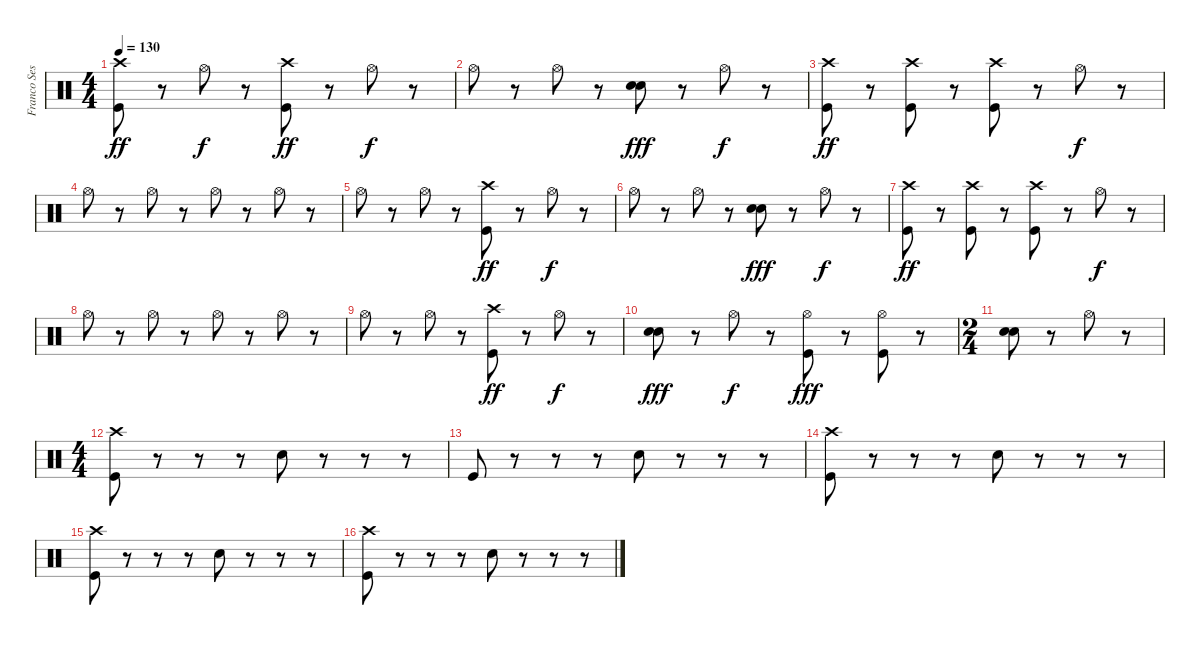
\track ("Franco Sesa" "Franco Ses") {instrument percussion}
\staff {score}
\articulation defaults
\ts (4 4)
\tempo 130
\clef neutral
\ks c
("Crash high (hit)" "Kick (hit)").8{dy ff} r.8 "Hi-Hat (open)".8{dy f} r.8 ("Crash high (hit)" "Kick (hit)").8{dy ff} r.8 "Hi-Hat (open)".8{dy f} r.8 |
"Hi-Hat (open)".8 r.8 "Hi-Hat (open)".8 r.8 ("Electric Snare (hit)" "Electric Snare (hit)").8{dy fff} r.8 "Hi-Hat (open)".8{dy f} r.8 |
("Crash high (hit)" "Kick (hit)").8{dy ff} r.8 ("Crash high (hit)" "Kick (hit)").8 r.8 ("Crash high (hit)" "Kick (hit)").8 r.8 "Hi-Hat (open)".8{dy f} r.8 |
"Hi-Hat (open)".8 r.8 "Hi-Hat (open)".8 r.8 "Hi-Hat (open)".8 r.8 "Hi-Hat (open)".8 r.8 |
"Hi-Hat (open)".8 r.8 "Hi-Hat (open)".8 r.8 ("Crash high (hit)" "Kick (hit)").8{dy ff} r.8 "Hi-Hat (open)".8{dy f} r.8 |
"Hi-Hat (open)".8 r.8 "Hi-Hat (open)".8 r.8 ("Electric Snare (hit)" "Electric Snare (hit)").8{dy fff} r.8 "Hi-Hat (open)".8{dy f} r.8 |
("Crash high (hit)" "Kick (hit)").8{dy ff} r.8 ("Crash high (hit)" "Kick (hit)").8 r.8 ("Crash high (hit)" "Kick (hit)").8 r.8 "Hi-Hat (open)".8{dy f} r.8 |
"Hi-Hat (open)".8 r.8 "Hi-Hat (open)".8 r.8 "Hi-Hat (open)".8 r.8 "Hi-Hat (open)".8 r.8 |
"Hi-Hat (open)".8 r.8 "Hi-Hat (open)".8 r.8 ("Crash high (hit)" "Kick (hit)").8{dy ff} r.8 "Hi-Hat (open)".8{dy f} r.8 |
("Electric Snare (hit)" "Electric Snare (hit)").8{dy fff} r.8 "Hi-Hat (open)".8{dy f} r.8 ("Hi-Hat (open)" "Kick (hit)").8{dy fff} r.8 ("Hi-Hat (open)" "Kick (hit)").8 r.8 |
\ts (2 4)
("Electric Snare (hit)" "Electric Snare (hit)").8 r.8 "Hi-Hat (open)".8 r.8 |
\ts (4 4)
("Crash high (hit)" "Kick (hit)").8 r.8 r.8 r.8 "Electric Snare (hit)".8 r.8 r.8 r.8 |
"Kick (hit)".8 r.8 r.8 r.8 "Electric Snare (hit)".8 r.8 r.8 r.8 |
("Crash high (hit)" "Kick (hit)").8 r.8 r.8 r.8 "Electric Snare (hit)".8 r.8 r.8 r.8 |
("Crash high (hit)" "Kick (hit)").8 r.8 r.8 r.8 "Electric Snare (hit)".8 r.8 r.8 r.8 |
("Crash high (hit)" "Kick (hit)").8 r.8 r.8 r.8 "Electric Snare (hit)".8 r.8 r.8 r.8
